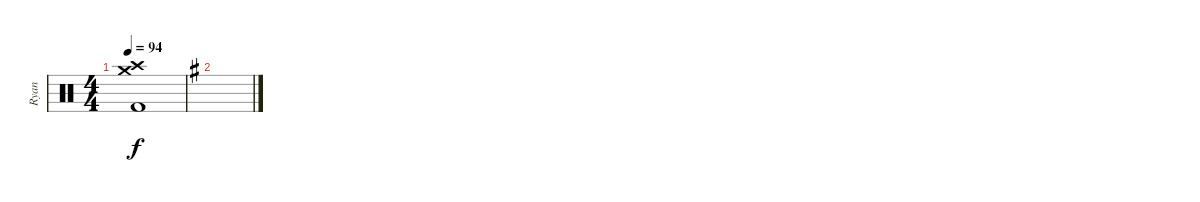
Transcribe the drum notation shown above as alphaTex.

\track ("Ryan" "Ryan") {instrument percussion}
\staff {score}
\articulation defaults
\ts (4 4)
\tempo 94
\clef neutral
\ks c
("Crash high (hit)" "Crash medium (hit)" "Kick (hit) 2").1{dy f} |
\ks g
